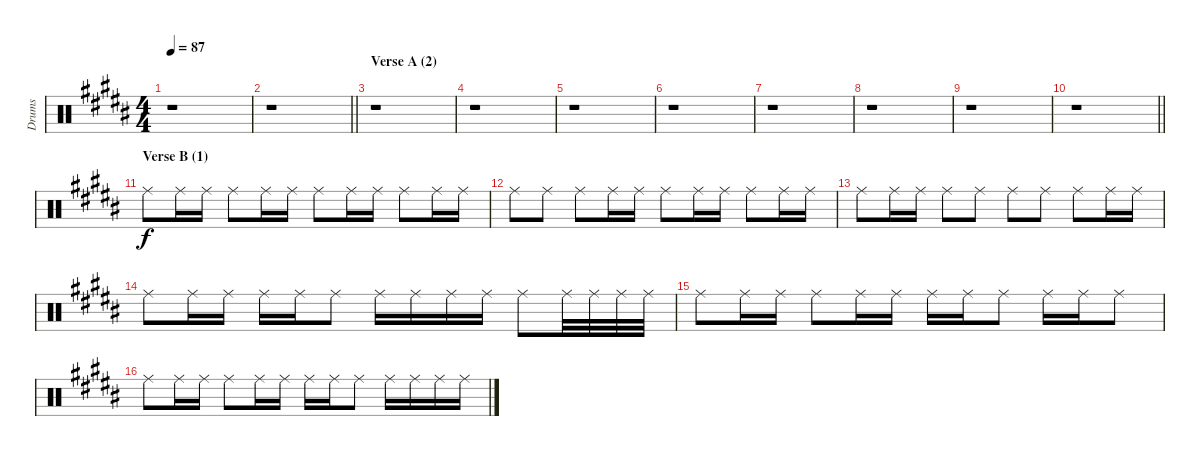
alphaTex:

\track ("Drums" "Drums") {instrument percussion}
\staff {score}
\articulation defaults
\ts (4 4)
\tempo 87
\clef neutral
\ks b
r.1{dy f} |
\barLineRight lightlight
r.1 |
\section ("" "Verse A (2)")
r.1 |
r.1 |
r.1 |
r.1 |
r.1 |
r.1 |
r.1 |
\barLineRight lightlight
r.1 |
\section ("" "Verse B (1)")
"Ride (middle)".8 "Ride (middle)".16 "Ride (middle)".16 "Ride (middle)".8 "Ride (middle)".16 "Ride (middle)".16 "Ride (middle)".8 "Ride (middle)".16 "Ride (middle)".16 "Ride (middle)".8 "Ride (middle)".16 "Ride (middle)".16 |
"Ride (middle)".8 "Ride (middle)".8 "Ride (middle)".8 "Ride (middle)".16 "Ride (middle)".16 "Ride (middle)".8 "Ride (middle)".16 "Ride (middle)".16 "Ride (middle)".8 "Ride (middle)".16 "Ride (middle)".16 |
"Ride (middle)".8 "Ride (middle)".16 "Ride (middle)".16 "Ride (middle)".8 "Ride (middle)".8 "Ride (middle)".8 "Ride (middle)".8 "Ride (middle)".8 "Ride (middle)".16 "Ride (middle)".16 |
"Ride (middle)".8 "Ride (middle)".16 "Ride (middle)".16 "Ride (middle)".16 "Ride (middle)".16 "Ride (middle)".8 "Ride (middle)".16 "Ride (middle)".16 "Ride (middle)".16 "Ride (middle)".16 "Ride (middle)".8 "Ride (middle)".32 "Ride (middle)".32 "Ride (middle)".32 "Ride (middle)".32 |
"Ride (middle)".8 "Ride (middle)".16 "Ride (middle)".16 "Ride (middle)".8 "Ride (middle)".16 "Ride (middle)".16 "Ride (middle)".16 "Ride (middle)".16 "Ride (middle)".8 "Ride (middle)".16 "Ride (middle)".16 "Ride (middle)".8 |
"Ride (middle)".8 "Ride (middle)".16 "Ride (middle)".16 "Ride (middle)".8 "Ride (middle)".16 "Ride (middle)".16 "Ride (middle)".16 "Ride (middle)".16 "Ride (middle)".8 "Ride (middle)".16 "Ride (middle)".16 "Ride (middle)".16 "Ride (middle)".16
